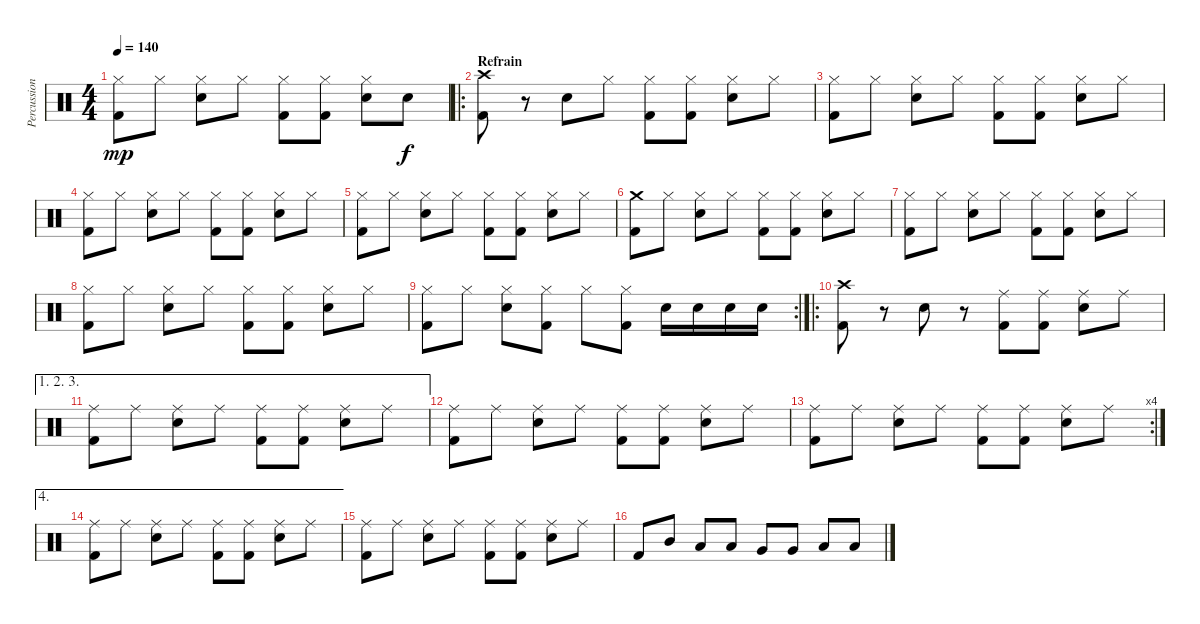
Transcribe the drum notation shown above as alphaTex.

\track ("Percussions" "Percussion") {instrument percussion}
\staff {score}
\articulation defaults
\ts (4 4)
\tempo 140
\clef neutral
\ks c
("Hi-Hat (closed)" "Kick (hit) 2").8{dy mp} "Hi-Hat (closed)".8 ("Hi-Hat (closed)" "Electric Snare (hit)").8 "Hi-Hat (closed)".8 ("Hi-Hat (closed)" "Kick (hit) 2").8 ("Hi-Hat (closed)" "Kick (hit) 2").8 ("Hi-Hat (closed)" "Electric Snare (hit)").8 "Electric Snare (hit)".8{dy f} |
\ro
\section ("" "Refrain")
("Crash high (hit)" "Kick (hit) 2").8 r.8 "Electric Snare (hit)".8 "Hi-Hat (closed)".8 ("Hi-Hat (closed)" "Kick (hit) 2").8 ("Hi-Hat (closed)" "Kick (hit) 2").8 ("Hi-Hat (closed)" "Electric Snare (hit)").8 "Hi-Hat (closed)".8 |
("Hi-Hat (closed)" "Kick (hit) 2").8 "Hi-Hat (closed)".8 ("Hi-Hat (closed)" "Electric Snare (hit)").8 "Hi-Hat (closed)".8 ("Hi-Hat (closed)" "Kick (hit) 2").8 ("Hi-Hat (closed)" "Kick (hit) 2").8 ("Hi-Hat (closed)" "Electric Snare (hit)").8 "Hi-Hat (closed)".8 |
("Hi-Hat (closed)" "Kick (hit) 2").8 "Hi-Hat (closed)".8 ("Hi-Hat (closed)" "Electric Snare (hit)").8 "Hi-Hat (closed)".8 ("Hi-Hat (closed)" "Kick (hit) 2").8 ("Hi-Hat (closed)" "Kick (hit) 2").8 ("Hi-Hat (closed)" "Electric Snare (hit)").8 "Hi-Hat (closed)".8 |
("Hi-Hat (closed)" "Kick (hit) 2").8 "Hi-Hat (closed)".8 ("Hi-Hat (closed)" "Electric Snare (hit)").8 "Hi-Hat (closed)".8 ("Hi-Hat (closed)" "Kick (hit) 2").8 ("Hi-Hat (closed)" "Kick (hit) 2").8 ("Hi-Hat (closed)" "Electric Snare (hit)").8 "Hi-Hat (closed)".8 |
("Crash medium (hit)" "Kick (hit) 2").8 "Hi-Hat (closed)".8 ("Hi-Hat (closed)" "Electric Snare (hit)").8 "Hi-Hat (closed)".8 ("Hi-Hat (closed)" "Kick (hit) 2").8 ("Hi-Hat (closed)" "Kick (hit) 2").8 ("Hi-Hat (closed)" "Electric Snare (hit)").8 "Hi-Hat (closed)".8 |
("Hi-Hat (closed)" "Kick (hit) 2").8 "Hi-Hat (closed)".8 ("Hi-Hat (closed)" "Electric Snare (hit)").8 "Hi-Hat (closed)".8 ("Hi-Hat (closed)" "Kick (hit) 2").8 ("Hi-Hat (closed)" "Kick (hit) 2").8 ("Hi-Hat (closed)" "Electric Snare (hit)").8 "Hi-Hat (closed)".8 |
("Hi-Hat (closed)" "Kick (hit) 2").8 "Hi-Hat (closed)".8 ("Hi-Hat (closed)" "Electric Snare (hit)").8 "Hi-Hat (closed)".8 ("Hi-Hat (closed)" "Kick (hit) 2").8 ("Hi-Hat (closed)" "Kick (hit) 2").8 ("Hi-Hat (closed)" "Electric Snare (hit)").8 "Hi-Hat (closed)".8 |
\rc 2
("Hi-Hat (closed)" "Kick (hit) 2").8 "Hi-Hat (closed)".8 ("Hi-Hat (closed)" "Electric Snare (hit)").8 ("Hi-Hat (closed)" "Kick (hit) 2").8 "Hi-Hat (closed)".8 ("Hi-Hat (closed)" "Kick (hit) 2").8 "Electric Snare (hit)".16 "Electric Snare (hit)".16 "Electric Snare (hit)".16 "Electric Snare (hit)".16 |
\ro
("Crash high (hit)" "Kick (hit) 2").8 r.8 "Electric Snare (hit)".8 r.8 ("Ride (middle)" "Kick (hit) 2").8 ("Ride (middle)" "Kick (hit) 2").8 ("Ride (middle)" "Electric Snare (hit)").8 "Ride (middle)".8 |
\ae (1 2 3)
("Ride (middle)" "Kick (hit) 2").8 "Ride (middle)".8 ("Ride (middle)" "Electric Snare (hit)").8 "Ride (middle)".8 ("Ride (middle)" "Kick (hit) 2").8 ("Ride (middle)" "Kick (hit) 2").8 ("Ride (middle)" "Electric Snare (hit)").8 "Ride (middle)".8 |
("Ride (middle)" "Kick (hit) 2").8 "Ride (middle)".8 ("Ride (middle)" "Electric Snare (hit)").8 "Ride (middle)".8 ("Ride (middle)" "Kick (hit) 2").8 ("Ride (middle)" "Kick (hit) 2").8 ("Ride (middle)" "Electric Snare (hit)").8 "Ride (middle)".8 |
\rc 4
("Ride (middle)" "Kick (hit) 2").8 "Ride (middle)".8 ("Ride (middle)" "Electric Snare (hit)").8 "Ride (middle)".8 ("Ride (middle)" "Kick (hit) 2").8 ("Ride (middle)" "Kick (hit) 2").8 ("Ride (middle)" "Electric Snare (hit)").8 "Ride (middle)".8 |
\ae 4
("Ride (middle)" "Kick (hit) 2").8 "Ride (middle)".8 ("Ride (middle)" "Electric Snare (hit)").8 "Ride (middle)".8 ("Ride (middle)" "Kick (hit) 2").8 ("Ride (middle)" "Kick (hit) 2").8 ("Ride (middle)" "Electric Snare (hit)").8 "Ride (middle)".8 |
("Ride (middle)" "Kick (hit) 2").8 "Ride (middle)".8 ("Ride (middle)" "Electric Snare (hit)").8 "Ride (middle)".8 ("Ride (middle)" "Kick (hit) 2").8 ("Ride (middle)" "Kick (hit) 2").8 ("Ride (middle)" "Electric Snare (hit)").8 "Ride (middle)".8 |
"Kick (hit) 2".8 "Mid Tom (hit)".8 "Low Tom (hit)".8 "Low Tom (hit)".8 "Very Low Tom (hit)".8 "Very Low Tom (hit)".8 "Low Floor Tom (hit)".8 "Low Floor Tom (hit)".8
